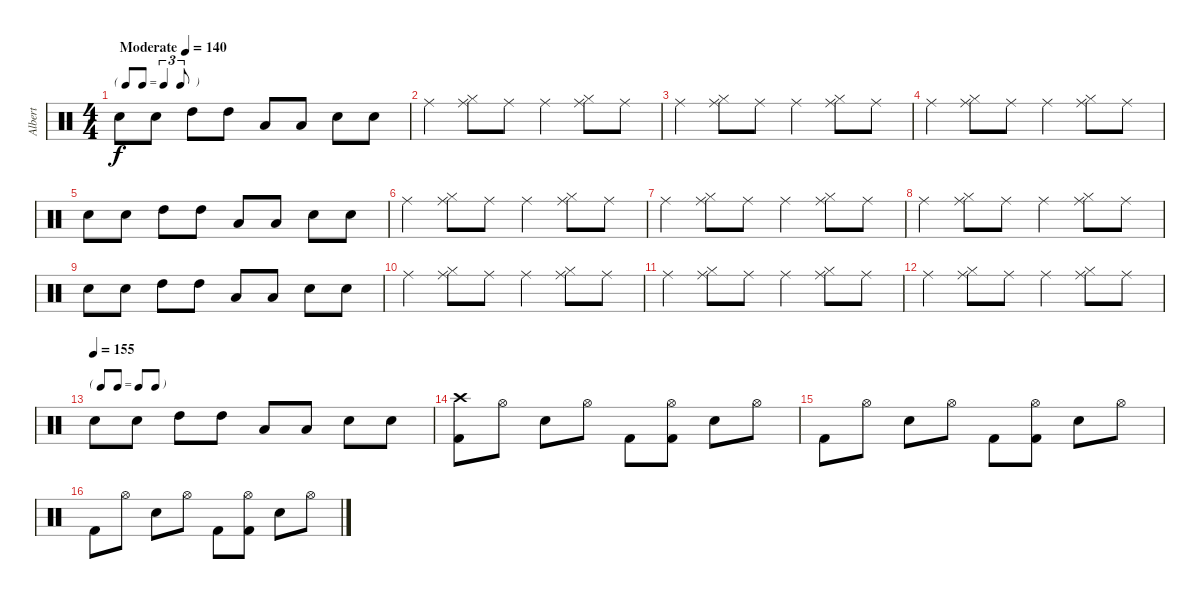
\track ("Albert" "Albert") {instrument percussion}
\staff {score}
\articulation defaults
\ts (4 4)
\tf triplet8th
\tempo (140 "Moderate")
\clef neutral
\ks c "Electric Snare (hit)".8{dy f} "Electric Snare (hit)".8 "High Tom (hit)".8 "High Tom (hit)".8 "Low Tom (hit)".8 "Low Tom (hit)".8 "Electric Snare (hit)".8 "Electric Snare (hit)".8
|
"Ride (middle)".4 ("Ride (middle)" "Hi-Hat (closed)").8 "Ride (middle)".8 "Ride (middle)".4 ("Ride (middle)" "Hi-Hat (closed)").8 "Ride (middle)".8 |
"Ride (middle)".4 ("Ride (middle)" "Hi-Hat (closed)").8 "Ride (middle)".8 "Ride (middle)".4 ("Ride (middle)" "Hi-Hat (closed)").8 "Ride (middle)".8 |
"Ride (middle)".4 ("Ride (middle)" "Hi-Hat (closed)").8 "Ride (middle)".8 "Ride (middle)".4 ("Ride (middle)" "Hi-Hat (closed)").8 "Ride (middle)".8 |
"Electric Snare (hit)".8 "Electric Snare (hit)".8 "High Tom (hit)".8 "High Tom (hit)".8 "Low Tom (hit)".8 "Low Tom (hit)".8 "Electric Snare (hit)".8 "Electric Snare (hit)".8 |
"Ride (middle)".4 ("Ride (middle)" "Hi-Hat (closed)").8 "Ride (middle)".8 "Ride (middle)".4 ("Ride (middle)" "Hi-Hat (closed)").8 "Ride (middle)".8 |
"Ride (middle)".4 ("Ride (middle)" "Hi-Hat (closed)").8 "Ride (middle)".8 "Ride (middle)".4 ("Ride (middle)" "Hi-Hat (closed)").8 "Ride (middle)".8 |
"Ride (middle)".4 ("Ride (middle)" "Hi-Hat (closed)").8 "Ride (middle)".8 "Ride (middle)".4 ("Ride (middle)" "Hi-Hat (closed)").8 "Ride (middle)".8 |
"Electric Snare (hit)".8 "Electric Snare (hit)".8 "High Tom (hit)".8 "High Tom (hit)".8 "Low Tom (hit)".8 "Low Tom (hit)".8 "Electric Snare (hit)".8 "Electric Snare (hit)".8 |
"Ride (middle)".4 ("Ride (middle)" "Hi-Hat (closed)").8 "Ride (middle)".8 "Ride (middle)".4 ("Ride (middle)" "Hi-Hat (closed)").8 "Ride (middle)".8 |
"Ride (middle)".4 ("Ride (middle)" "Hi-Hat (closed)").8 "Ride (middle)".8 "Ride (middle)".4 ("Ride (middle)" "Hi-Hat (closed)").8 "Ride (middle)".8 |
"Ride (middle)".4 ("Ride (middle)" "Hi-Hat (closed)").8 "Ride (middle)".8 "Ride (middle)".4 ("Ride (middle)" "Hi-Hat (closed)").8 "Ride (middle)".8 |
\tf none
\tempo (155)
"Electric Snare (hit)".8 "Electric Snare (hit)".8 "High Tom (hit)".8 "High Tom (hit)".8 "Low Tom (hit)".8 "Low Tom (hit)".8 "Electric Snare (hit)".8 "Electric Snare (hit)".8 |
("Crash high (hit)" "Kick (hit) 2").8 "Hi-Hat (open)".8 "Electric Snare (hit)".8 "Hi-Hat (open)".8 "Kick (hit) 2".8 ("Hi-Hat (open)" "Kick (hit) 2").8 "Electric Snare (hit)".8 "Hi-Hat (open)".8 |
"Kick (hit) 2".8 "Hi-Hat (open)".8 "Electric Snare (hit)".8 "Hi-Hat (open)".8 "Kick (hit) 2".8 ("Hi-Hat (open)" "Kick (hit) 2").8 "Electric Snare (hit)".8 "Hi-Hat (open)".8 |
"Kick (hit) 2".8 "Hi-Hat (open)".8 "Electric Snare (hit)".8 "Hi-Hat (open)".8 "Kick (hit) 2".8 ("Hi-Hat (open)" "Kick (hit) 2").8 "Electric Snare (hit)".8 "Hi-Hat (open)".8
